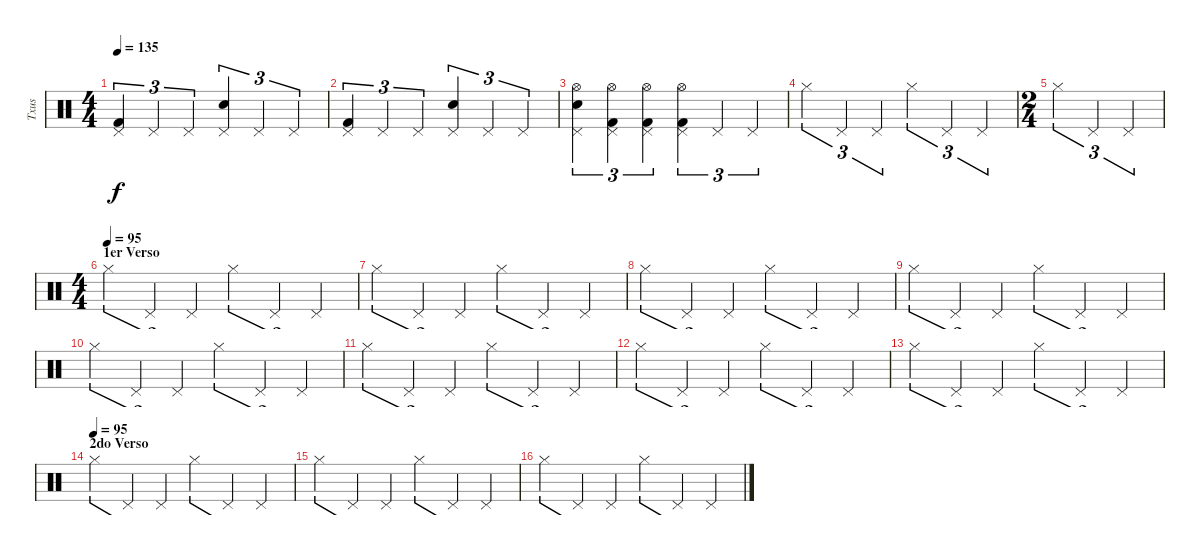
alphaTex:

\track ("Txus" "Txus") {instrument percussion}
\staff {score}
\articulation defaults
\ts (4 4)
\tempo 135
\clef neutral
\ks c
("Pedal Hi-Hat (hit)" "Kick (hit) 2").4{tu (3 2) dy f} "Pedal Hi-Hat (hit)".4{tu (3 2)} "Pedal Hi-Hat (hit)".4{tu (3 2)} ("Pedal Hi-Hat (hit)" "Snare (hit) 2").4{tu (3 2)} "Pedal Hi-Hat (hit)".4{tu (3 2)} "Pedal Hi-Hat (hit)".4{tu (3 2)} |
("Pedal Hi-Hat (hit)" "Kick (hit) 2").4{tu (3 2)} "Pedal Hi-Hat (hit)".4{tu (3 2)} "Pedal Hi-Hat (hit)".4{tu (3 2)} ("Pedal Hi-Hat (hit)" "Snare (hit) 2").4{tu (3 2)} "Pedal Hi-Hat (hit)".4{tu (3 2)} "Pedal Hi-Hat (hit)".4{tu (3 2)} |
("Pedal Hi-Hat (hit)" "Snare (hit) 2" "Hi-Hat (open)").4{tu (3 2)} ("Pedal Hi-Hat (hit)" "Kick (hit) 2" "Hi-Hat (open)").4{tu (3 2)} ("Pedal Hi-Hat (hit)" "Kick (hit) 2" "Hi-Hat (open)").4{tu (3 2)} ("Pedal Hi-Hat (hit)" "Kick (hit) 2" "Hi-Hat (open)").4{tu (3 2)} "Pedal Hi-Hat (hit)".4{tu (3 2)} "Pedal Hi-Hat (hit)".4{tu (3 2)} |
"Hi-Hat (closed)".4{tu (3 2)} "Pedal Hi-Hat (hit)".4{tu (3 2)} "Pedal Hi-Hat (hit)".4{tu (3 2)} "Hi-Hat (closed)".4{tu (3 2)} "Pedal Hi-Hat (hit)".4{tu (3 2)} "Pedal Hi-Hat (hit)".4{tu (3 2)} |
\ts (2 4)
"Hi-Hat (closed)".4{tu (3 2)} "Pedal Hi-Hat (hit)".4{tu (3 2)} "Pedal Hi-Hat (hit)".4{tu (3 2)} |
\ts (4 4)
\section ("" "1er Verso")
\tempo (95)
"Hi-Hat (closed)".4{tu (3 2)} "Pedal Hi-Hat (hit)".4{tu (3 2)} "Pedal Hi-Hat (hit)".4{tu (3 2)} "Hi-Hat (closed)".4{tu (3 2)} "Pedal Hi-Hat (hit)".4{tu (3 2)} "Pedal Hi-Hat (hit)".4{tu (3 2)} |
"Hi-Hat (closed)".4{tu (3 2)} "Pedal Hi-Hat (hit)".4{tu (3 2)} "Pedal Hi-Hat (hit)".4{tu (3 2)} "Hi-Hat (closed)".4{tu (3 2)} "Pedal Hi-Hat (hit)".4{tu (3 2)} "Pedal Hi-Hat (hit)".4{tu (3 2)} |
"Hi-Hat (closed)".4{tu (3 2)} "Pedal Hi-Hat (hit)".4{tu (3 2)} "Pedal Hi-Hat (hit)".4{tu (3 2)} "Hi-Hat (closed)".4{tu (3 2)} "Pedal Hi-Hat (hit)".4{tu (3 2)} "Pedal Hi-Hat (hit)".4{tu (3 2)} |
"Hi-Hat (closed)".4{tu (3 2)} "Pedal Hi-Hat (hit)".4{tu (3 2)} "Pedal Hi-Hat (hit)".4{tu (3 2)} "Hi-Hat (closed)".4{tu (3 2)} "Pedal Hi-Hat (hit)".4{tu (3 2)} "Pedal Hi-Hat (hit)".4{tu (3 2)} |
"Hi-Hat (closed)".4{tu (3 2)} "Pedal Hi-Hat (hit)".4{tu (3 2)} "Pedal Hi-Hat (hit)".4{tu (3 2)} "Hi-Hat (closed)".4{tu (3 2)} "Pedal Hi-Hat (hit)".4{tu (3 2)} "Pedal Hi-Hat (hit)".4{tu (3 2)} |
"Hi-Hat (closed)".4{tu (3 2)} "Pedal Hi-Hat (hit)".4{tu (3 2)} "Pedal Hi-Hat (hit)".4{tu (3 2)} "Hi-Hat (closed)".4{tu (3 2)} "Pedal Hi-Hat (hit)".4{tu (3 2)} "Pedal Hi-Hat (hit)".4{tu (3 2)} |
"Hi-Hat (closed)".4{tu (3 2)} "Pedal Hi-Hat (hit)".4{tu (3 2)} "Pedal Hi-Hat (hit)".4{tu (3 2)} "Hi-Hat (closed)".4{tu (3 2)} "Pedal Hi-Hat (hit)".4{tu (3 2)} "Pedal Hi-Hat (hit)".4{tu (3 2)} |
"Hi-Hat (closed)".4{tu (3 2)} "Pedal Hi-Hat (hit)".4{tu (3 2)} "Pedal Hi-Hat (hit)".4{tu (3 2)} "Hi-Hat (closed)".4{tu (3 2)} "Pedal Hi-Hat (hit)".4{tu (3 2)} "Pedal Hi-Hat (hit)".4{tu (3 2)} |
\section ("" "2do Verso")
\tempo (95)
"Hi-Hat (closed)".4{tu (3 2)} "Pedal Hi-Hat (hit)".4{tu (3 2)} "Pedal Hi-Hat (hit)".4{tu (3 2)} "Hi-Hat (closed)".4{tu (3 2)} "Pedal Hi-Hat (hit)".4{tu (3 2)} "Pedal Hi-Hat (hit)".4{tu (3 2)} |
"Hi-Hat (closed)".4{tu (3 2)} "Pedal Hi-Hat (hit)".4{tu (3 2)} "Pedal Hi-Hat (hit)".4{tu (3 2)} "Hi-Hat (closed)".4{tu (3 2)} "Pedal Hi-Hat (hit)".4{tu (3 2)} "Pedal Hi-Hat (hit)".4{tu (3 2)} |
"Hi-Hat (closed)".4{tu (3 2)} "Pedal Hi-Hat (hit)".4{tu (3 2)} "Pedal Hi-Hat (hit)".4{tu (3 2)} "Hi-Hat (closed)".4{tu (3 2)} "Pedal Hi-Hat (hit)".4{tu (3 2)} "Pedal Hi-Hat (hit)".4{tu (3 2)}
